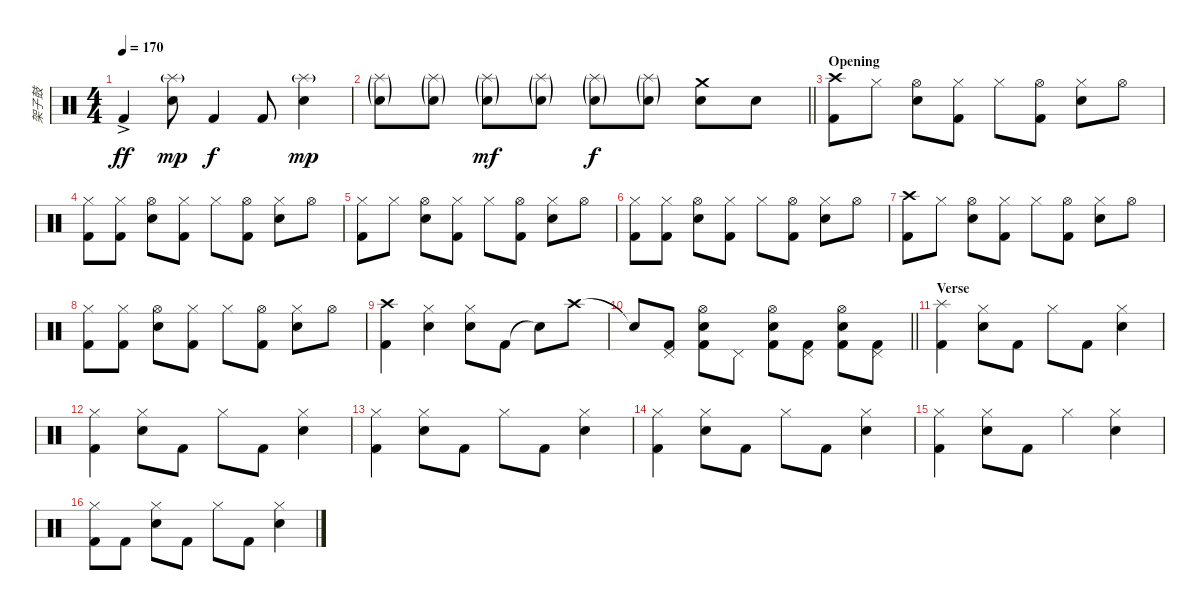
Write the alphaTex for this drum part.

\track ("架子鼓" "架子鼓") {instrument percussion}
\staff {score}
\articulation defaults
\ts (4 4)
\tempo 170
\clef neutral
\ks c "Kick (hit) 2"{ac}.4{dy ff}
("Splash (hit)"{g} "Snare (hit) 2").8{dy mp} "Kick (hit) 2".4{dy f} "Kick (hit) 2".8 ("Splash (hit)"{g} "Snare (hit) 2").4{dy mp} |
\barLineRight lightlight
("Splash (hit)"{g} "Snare (hit) 2"{g}).8 ("Splash (hit)"{g} "Snare (hit) 2"{g}).8 ("Splash (hit)"{g} "Snare (hit) 2"{g}).8{dy mf} ("Splash (hit)"{g} "Snare (hit) 2"{g}).8 ("Splash (hit)"{g} "Snare (hit) 2"{g}).8{dy f} ("Splash (hit)"{g} "Snare (hit) 2"{g}).8 ("Crash medium (hit)" "Snare (hit) 2").8 "Snare (hit) 2".8 |
\section ("" "Opening")
("Crash high (hit)" "Kick (hit) 2").8 "Hi-Hat (closed)".8 ("Hi-Hat (open)" "Snare (hit) 2").8 ("Hi-Hat (closed)" "Kick (hit) 2").8 "Hi-Hat (closed)".8 ("Hi-Hat (open)" "Kick (hit) 2").8 ("Hi-Hat (closed)" "Snare (hit) 2").8 "Hi-Hat (open)".8 |
("Hi-Hat (closed)" "Kick (hit) 2").8 ("Hi-Hat (closed)" "Kick (hit) 2").8 ("Hi-Hat (open)" "Snare (hit) 2").8 ("Hi-Hat (closed)" "Kick (hit) 2").8 "Hi-Hat (closed)".8 ("Hi-Hat (open)" "Kick (hit) 2").8 ("Hi-Hat (closed)" "Snare (hit) 2").8 "Hi-Hat (open)".8 |
("Hi-Hat (closed)" "Kick (hit) 2").8 "Hi-Hat (closed)".8 ("Hi-Hat (open)" "Snare (hit) 2").8 ("Hi-Hat (closed)" "Kick (hit) 2").8 "Hi-Hat (closed)".8 ("Hi-Hat (open)" "Kick (hit) 2").8 ("Hi-Hat (closed)" "Snare (hit) 2").8 "Hi-Hat (open)".8 |
("Hi-Hat (closed)" "Kick (hit) 2").8 ("Hi-Hat (closed)" "Kick (hit) 2").8 ("Hi-Hat (open)" "Snare (hit) 2").8 ("Hi-Hat (closed)" "Kick (hit) 2").8 "Hi-Hat (closed)".8 ("Hi-Hat (open)" "Kick (hit) 2").8 ("Hi-Hat (closed)" "Snare (hit) 2").8 "Hi-Hat (open)".8 |
("Crash high (hit)" "Kick (hit) 2").8 "Hi-Hat (closed)".8 ("Hi-Hat (open)" "Snare (hit) 2").8 ("Hi-Hat (closed)" "Kick (hit) 2").8 "Hi-Hat (closed)".8 ("Hi-Hat (open)" "Kick (hit) 2").8 ("Hi-Hat (closed)" "Snare (hit) 2").8 "Hi-Hat (open)".8 |
("Hi-Hat (closed)" "Kick (hit) 2").8 ("Hi-Hat (closed)" "Kick (hit) 2").8 ("Hi-Hat (open)" "Snare (hit) 2").8 ("Hi-Hat (closed)" "Kick (hit) 2").8 "Hi-Hat (closed)".8 ("Hi-Hat (open)" "Kick (hit) 2").8 ("Hi-Hat (closed)" "Snare (hit) 2").8 "Hi-Hat (open)".8 |
("Crash high (hit)" "Kick (hit) 2").4 ("Hi-Hat (closed)" "Snare (hit) 2").4 ("Hi-Hat (closed)" "Snare (hit) 2").8 "Kick (hit) 2".8 "Snare (hit)"{t}.8 "Crash high (hit)".8 |
\barLineRight lightlight "Snare (hit)"{t}.8
("Pedal Hi-Hat (hit)" "Kick (hit) 2").8 ("Hi-Hat (open)" "Snare (hit) 2" "Kick (hit) 2").8 "Pedal Hi-Hat (hit)".8 ("Hi-Hat (open)" "Snare (hit) 2" "Kick (hit) 2").8 ("Pedal Hi-Hat (hit)" "Kick (hit) 2").8 ("Hi-Hat (open)" "Snare (hit) 2" "Kick (hit) 2").8 ("Pedal Hi-Hat (hit)" "Kick (hit) 2").8 |
\section ("" "Verse")
("Splash (hit)" "Kick (hit) 2").4 ("Hi-Hat (closed)" "Snare (hit) 2").8 "Kick (hit) 2".8 "Hi-Hat (closed)".8 "Kick (hit) 2".8 ("Hi-Hat (closed)" "Snare (hit) 2").4 |
("Hi-Hat (closed)" "Kick (hit) 2").4 ("Hi-Hat (closed)" "Snare (hit) 2").8 "Kick (hit) 2".8 "Hi-Hat (closed)".8 "Kick (hit) 2".8 ("Hi-Hat (closed)" "Snare (hit) 2").4 |
("Hi-Hat (closed)" "Kick (hit) 2").4 ("Hi-Hat (closed)" "Snare (hit) 2").8 "Kick (hit) 2".8 "Hi-Hat (closed)".8 "Kick (hit) 2".8 ("Hi-Hat (closed)" "Snare (hit) 2").4 |
("Hi-Hat (closed)" "Kick (hit) 2").4 ("Hi-Hat (closed)" "Snare (hit) 2").8 "Kick (hit) 2".8 "Hi-Hat (closed)".8 "Kick (hit) 2".8 ("Hi-Hat (closed)" "Snare (hit) 2").4 |
("Hi-Hat (closed)" "Kick (hit) 2").4 ("Hi-Hat (closed)" "Snare (hit) 2").8 "Kick (hit) 2".8 "Hi-Hat (closed)".4 ("Hi-Hat (closed)" "Snare (hit) 2").4 |
("Hi-Hat (closed)" "Kick (hit) 2").8 "Kick (hit) 2".8 ("Hi-Hat (closed)" "Snare (hit) 2").8 "Kick (hit) 2".8 "Hi-Hat (closed)".8 "Kick (hit) 2".8 ("Hi-Hat (closed)" "Snare (hit) 2").4
